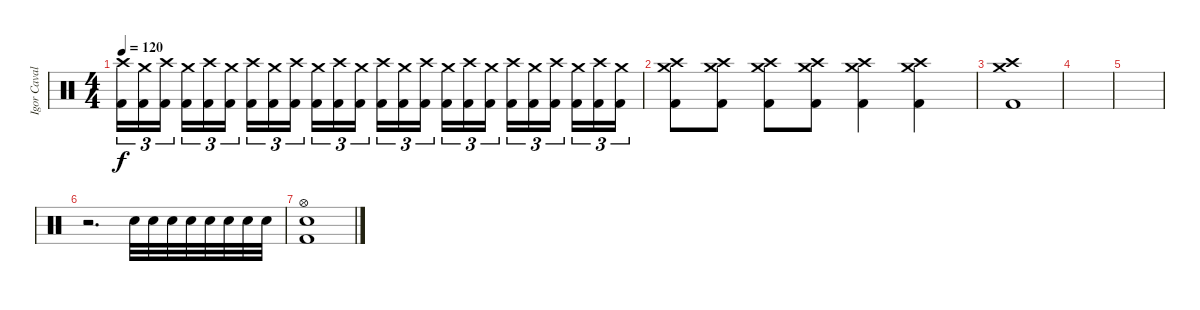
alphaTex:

\track ("Igor Cavalera" "Igor Caval") {instrument percussion}
\staff {score}
\articulation defaults
\ts (4 4)
\tempo 120
\clef neutral
\ks c
("Crash high (hit)" "Kick (hit) 2").16{tu (3 2) dy f} ("Crash medium (hit)" "Kick (hit) 2").16{tu (3 2)} ("Crash high (hit)" "Kick (hit) 2").16{tu (3 2)} ("Crash medium (hit)" "Kick (hit) 2").16{tu (3 2)} ("Crash high (hit)" "Kick (hit) 2").16{tu (3 2)} ("Crash medium (hit)" "Kick (hit) 2").16{tu (3 2)} ("Crash high (hit)" "Kick (hit) 2").16{tu (3 2)} ("Crash medium (hit)" "Kick (hit) 2").16{tu (3 2)} ("Crash high (hit)" "Kick (hit) 2").16{tu (3 2)} ("Crash medium (hit)" "Kick (hit) 2").16{tu (3 2)} ("Crash high (hit)" "Kick (hit) 2").16{tu (3 2)} ("Crash medium (hit)" "Kick (hit) 2").16{tu (3 2)} ("Crash high (hit)" "Kick (hit) 2").16{tu (3 2)} ("Crash medium (hit)" "Kick (hit) 2").16{tu (3 2)} ("Crash high (hit)" "Kick (hit) 2").16{tu (3 2)} ("Crash medium (hit)" "Kick (hit) 2").16{tu (3 2)} ("Crash high (hit)" "Kick (hit) 2").16{tu (3 2)} ("Crash medium (hit)" "Kick (hit) 2").16{tu (3 2)} ("Crash high (hit)" "Kick (hit) 2").16{tu (3 2)} ("Crash medium (hit)" "Kick (hit) 2").16{tu (3 2)} ("Crash high (hit)" "Kick (hit) 2").16{tu (3 2)} ("Crash medium (hit)" "Kick (hit) 2").16{tu (3 2)} ("Crash high (hit)" "Kick (hit) 2").16{tu (3 2)} ("Crash medium (hit)" "Kick (hit) 2").16{tu (3 2)} |
("Crash high (hit)" "Crash medium (hit)" "Kick (hit) 2").8 ("Crash high (hit)" "Crash medium (hit)" "Kick (hit) 2").8 ("Crash high (hit)" "Crash medium (hit)" "Kick (hit) 2").8 ("Crash high (hit)" "Crash medium (hit)" "Kick (hit) 2").8 ("Crash high (hit)" "Crash medium (hit)" "Kick (hit) 2").4 ("Crash high (hit)" "Crash medium (hit)" "Kick (hit) 2").4 |
("Crash high (hit)" "Crash medium (hit)" "Kick (hit) 2").1 |
|
|
r.2{d} "Electric Snare (hit)".32 "Electric Snare (hit)".32 "Electric Snare (hit)".32 "Electric Snare (hit)".32 "Electric Snare (hit)".32 "Electric Snare (hit)".32 "Electric Snare (hit)".32 "Electric Snare (hit)".32 |
("Hi-Hat (open)" "Electric Snare (hit)" "Kick (hit) 2").1
